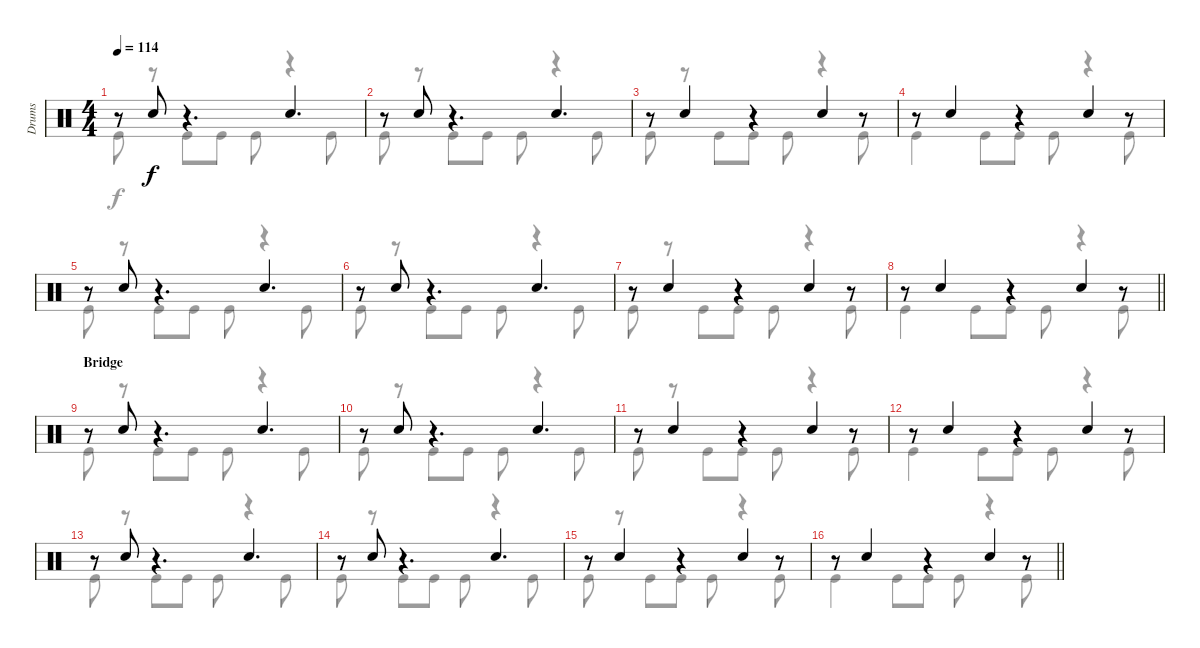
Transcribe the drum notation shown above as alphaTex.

\track ("Drums" "Drums") {instrument percussion}
\staff {score}
\articulation defaults
\voice
\ts (4 4)
\tempo 114
\clef neutral
\ks c
r.8{dy f} "Snare (hit) 2".8 r.4{d} "Snare (hit) 2".4{d} |
r.8 "Snare (hit) 2".8 r.4{d} "Snare (hit) 2".4{d} |
r.8 "Snare (hit) 2".4 r.4 "Snare (hit) 2".4 r.8 |
r.8 "Snare (hit) 2".4 r.4 "Snare (hit) 2".4 r.8 |
r.8 "Snare (hit) 2".8 r.4{d} "Snare (hit) 2".4{d} |
r.8 "Snare (hit) 2".8 r.4{d} "Snare (hit) 2".4{d} |
r.8 "Snare (hit) 2".4 r.4 "Snare (hit) 2".4 r.8 |
\barLineRight lightlight
r.8 "Snare (hit) 2".4 r.4 "Snare (hit) 2".4 r.8 |
\section ("" "Bridge")
r.8 "Snare (hit) 2".8 r.4{d} "Snare (hit) 2".4{d} |
r.8 "Snare (hit) 2".8 r.4{d} "Snare (hit) 2".4{d} |
r.8 "Snare (hit) 2".4 r.4 "Snare (hit) 2".4 r.8 |
r.8 "Snare (hit) 2".4 r.4 "Snare (hit) 2".4 r.8 |
r.8 "Snare (hit) 2".8 r.4{d} "Snare (hit) 2".4{d} |
r.8 "Snare (hit) 2".8 r.4{d} "Snare (hit) 2".4{d} |
r.8 "Snare (hit) 2".4 r.4 "Snare (hit) 2".4 r.8 |
\barLineRight lightlight
r.8 "Snare (hit) 2".4 r.4 "Snare (hit) 2".4 r.8
\voice
\clef neutral
\ottava regular
\simile none
\ks c "Kick (hit)".8{dy f}
r.8 "Kick (hit)".8 "Kick (hit)".8 "Kick (hit)".8 r.4 "Kick (hit)".8 |
"Kick (hit)".8 r.8 "Kick (hit)".8 "Kick (hit)".8 "Kick (hit)".8 r.4 "Kick (hit)".8 |
"Kick (hit)".8 r.8 "Kick (hit)".8 "Kick (hit)".8 "Kick (hit)".8 r.4 "Kick (hit)".8 |
"Kick (hit)".4 "Kick (hit)".8 "Kick (hit)".8 "Kick (hit)".8 r.4 "Kick (hit)".8 |
"Kick (hit)".8 r.8 "Kick (hit)".8 "Kick (hit)".8 "Kick (hit)".8 r.4 "Kick (hit)".8 |
"Kick (hit)".8 r.8 "Kick (hit)".8 "Kick (hit)".8 "Kick (hit)".8 r.4 "Kick (hit)".8 |
"Kick (hit)".8 r.8 "Kick (hit)".8 "Kick (hit)".8 "Kick (hit)".8 r.4 "Kick (hit)".8 |
\barLineRight lightlight "Kick (hit)".4 "Kick (hit)".8 "Kick (hit)".8 "Kick (hit)".8
r.4 "Kick (hit)".8 |
"Kick (hit)".8 r.8 "Kick (hit)".8 "Kick (hit)".8 "Kick (hit)".8 r.4 "Kick (hit)".8 |
"Kick (hit)".8 r.8 "Kick (hit)".8 "Kick (hit)".8 "Kick (hit)".8 r.4 "Kick (hit)".8 |
"Kick (hit)".8 r.8 "Kick (hit)".8 "Kick (hit)".8 "Kick (hit)".8 r.4 "Kick (hit)".8 |
"Kick (hit)".4 "Kick (hit)".8 "Kick (hit)".8 "Kick (hit)".8 r.4 "Kick (hit)".8 |
"Kick (hit)".8 r.8 "Kick (hit)".8 "Kick (hit)".8 "Kick (hit)".8 r.4 "Kick (hit)".8 |
"Kick (hit)".8 r.8 "Kick (hit)".8 "Kick (hit)".8 "Kick (hit)".8 r.4 "Kick (hit)".8 |
"Kick (hit)".8 r.8 "Kick (hit)".8 "Kick (hit)".8 "Kick (hit)".8 r.4 "Kick (hit)".8 |
\barLineRight lightlight "Kick (hit)".4 "Kick (hit)".8 "Kick (hit)".8 "Kick (hit)".8
r.4 "Kick (hit)".8
